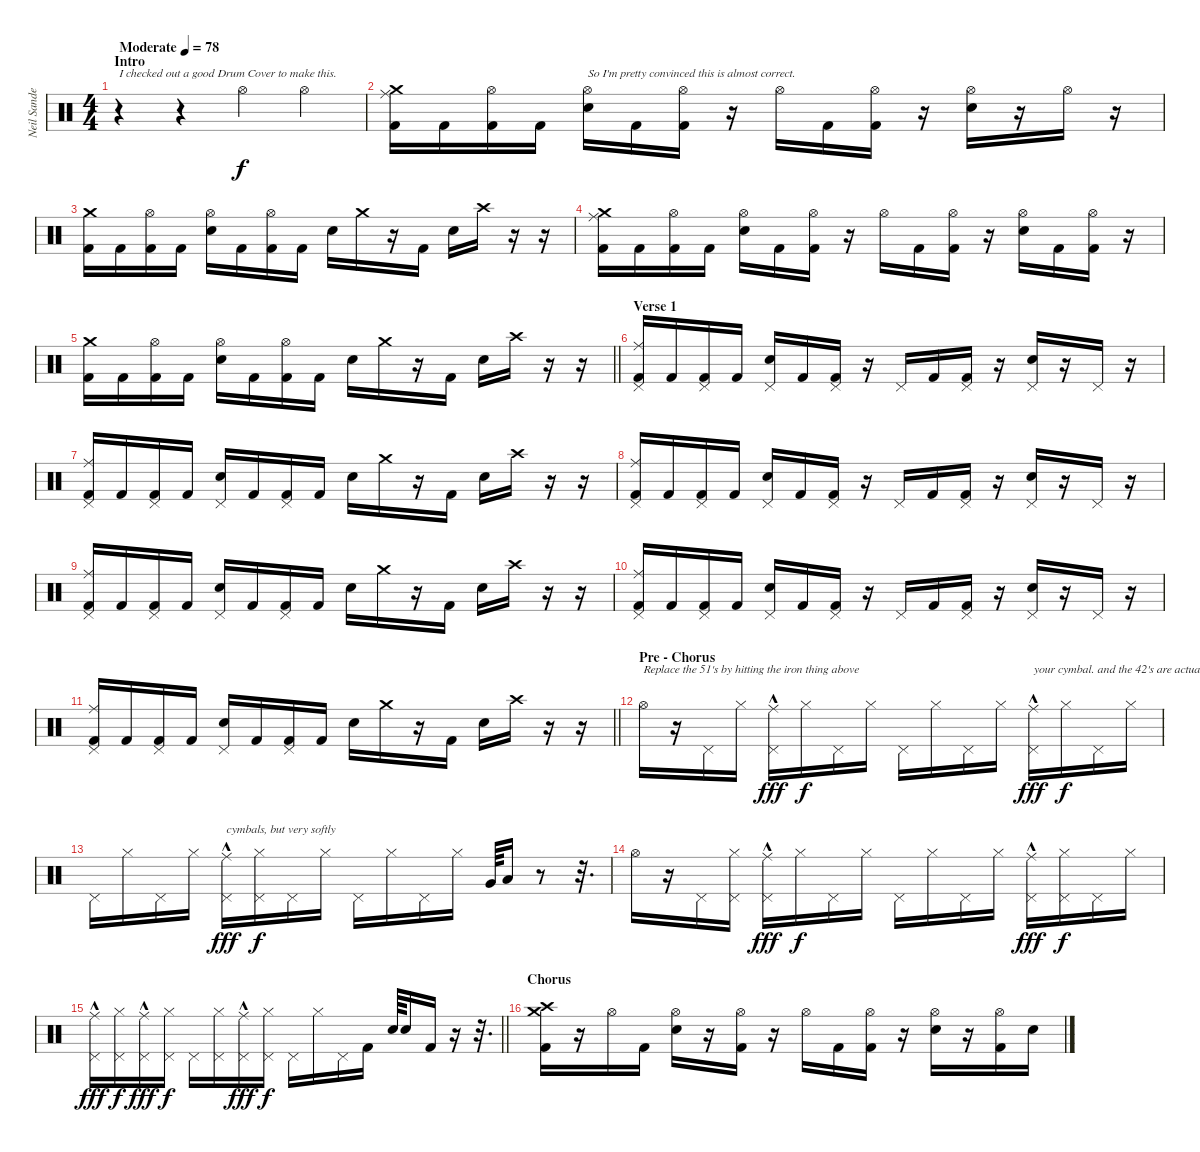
\track ("Neil Sanderson (Percussion)" "Neil Sande") {instrument percussion}
\staff {score}
\articulation defaults
\ts (4 4)
\section ("" "Intro")
\tempo (78 "Moderate")
\clef neutral
\ks c
r.4{txt "I checked out a good Drum Cover to make this." dy f} r.4 "Hi-Hat (open)".4 "Hi-Hat (open)".4 |
("Crash medium (hit)" "Ride (middle)" "Kick (hit) 2").16 "Kick (hit) 2".16 ("Hi-Hat (open)" "Kick (hit) 2").16 "Kick (hit) 2".16 ("Hi-Hat (open)" "Electric Snare (hit)").16{txt "So I'm pretty convinced this is almost correct."} "Kick (hit) 2".16 ("Hi-Hat (open)" "Kick (hit) 2").16 r.16 "Hi-Hat (open)".16 "Kick (hit) 2".16 ("Hi-Hat (open)" "Kick (hit) 2").16 r.16 ("Hi-Hat (open)" "Electric Snare (hit)").16 r.16 "Hi-Hat (open)".16 r.16 |
("Crash medium (hit)" "Kick (hit) 2").16 "Kick (hit) 2".16 ("Hi-Hat (open)" "Kick (hit) 2").16 "Kick (hit) 2".16 ("Hi-Hat (open)" "Electric Snare (hit)").16 "Kick (hit) 2".16 ("Hi-Hat (open)" "Kick (hit) 2").16 "Kick (hit) 2".16 "Electric Snare (hit)".16 "Crash medium (hit)".16 r.16 "Kick (hit) 2".16 "Electric Snare (hit)".16 "Crash high (hit)".16 r.16 r.16 |
("Crash medium (hit)" "Ride (middle)" "Kick (hit) 2").16 "Kick (hit) 2".16 ("Hi-Hat (open)" "Kick (hit) 2").16 "Kick (hit) 2".16 ("Hi-Hat (open)" "Electric Snare (hit)").16 "Kick (hit) 2".16 ("Hi-Hat (open)" "Kick (hit) 2").16 r.16 "Hi-Hat (open)".16 "Kick (hit) 2".16 ("Hi-Hat (open)" "Kick (hit) 2").16 r.16 ("Hi-Hat (open)" "Electric Snare (hit)").16 "Kick (hit) 2".16 ("Hi-Hat (open)" "Kick (hit) 2").16 r.16 |
\barLineRight lightlight
("Crash medium (hit)" "Kick (hit) 2").16 "Kick (hit) 2".16 ("Hi-Hat (open)" "Kick (hit) 2").16 "Kick (hit) 2".16 ("Hi-Hat (open)" "Electric Snare (hit)").16 "Kick (hit) 2".16 ("Hi-Hat (open)" "Kick (hit) 2").16 "Kick (hit) 2".16 "Electric Snare (hit)".16 "Crash medium (hit)".16 r.16 "Kick (hit) 2".16 "Electric Snare (hit)".16 "Crash high (hit)".16 r.16 r.16 |
\section ("" "Verse 1")
("Pedal Hi-Hat (hit)" "Ride (middle)" "Kick (hit) 2").16 "Kick (hit) 2".16 ("Pedal Hi-Hat (hit)" "Kick (hit) 2").16 "Kick (hit) 2".16 ("Pedal Hi-Hat (hit)" "Electric Snare (hit)").16 "Kick (hit) 2".16 ("Pedal Hi-Hat (hit)" "Kick (hit) 2").16 r.16 "Pedal Hi-Hat (hit)".16 "Kick (hit) 2".16 ("Pedal Hi-Hat (hit)" "Kick (hit) 2").16 r.16 ("Pedal Hi-Hat (hit)" "Electric Snare (hit)").16 r.16 "Pedal Hi-Hat (hit)".16 r.16 |
("Pedal Hi-Hat (hit)" "Ride (middle)" "Kick (hit) 2").16 "Kick (hit) 2".16 ("Pedal Hi-Hat (hit)" "Kick (hit) 2").16 "Kick (hit) 2".16 ("Pedal Hi-Hat (hit)" "Electric Snare (hit)").16 "Kick (hit) 2".16 ("Pedal Hi-Hat (hit)" "Kick (hit) 2").16 "Kick (hit) 2".16 "Electric Snare (hit)".16 "Crash medium (hit)".16 r.16 "Kick (hit) 2".16 "Electric Snare (hit)".16 "Crash high (hit)".16 r.16 r.16 |
("Pedal Hi-Hat (hit)" "Ride (middle)" "Kick (hit) 2").16 "Kick (hit) 2".16 ("Pedal Hi-Hat (hit)" "Kick (hit) 2").16 "Kick (hit) 2".16 ("Pedal Hi-Hat (hit)" "Electric Snare (hit)").16 "Kick (hit) 2".16 ("Pedal Hi-Hat (hit)" "Kick (hit) 2").16 r.16 "Pedal Hi-Hat (hit)".16 "Kick (hit) 2".16 ("Pedal Hi-Hat (hit)" "Kick (hit) 2").16 r.16 ("Pedal Hi-Hat (hit)" "Electric Snare (hit)").16 r.16 "Pedal Hi-Hat (hit)".16 r.16 |
("Pedal Hi-Hat (hit)" "Ride (middle)" "Kick (hit) 2").16 "Kick (hit) 2".16 ("Pedal Hi-Hat (hit)" "Kick (hit) 2").16 "Kick (hit) 2".16 ("Pedal Hi-Hat (hit)" "Electric Snare (hit)").16 "Kick (hit) 2".16 ("Pedal Hi-Hat (hit)" "Kick (hit) 2").16 "Kick (hit) 2".16 "Electric Snare (hit)".16 "Crash medium (hit)".16 r.16 "Kick (hit) 2".16 "Electric Snare (hit)".16 "Crash high (hit)".16 r.16 r.16 |
("Pedal Hi-Hat (hit)" "Ride (middle)" "Kick (hit) 2").16 "Kick (hit) 2".16 ("Pedal Hi-Hat (hit)" "Kick (hit) 2").16 "Kick (hit) 2".16 ("Pedal Hi-Hat (hit)" "Electric Snare (hit)").16 "Kick (hit) 2".16 ("Pedal Hi-Hat (hit)" "Kick (hit) 2").16 r.16 "Pedal Hi-Hat (hit)".16 "Kick (hit) 2".16 ("Pedal Hi-Hat (hit)" "Kick (hit) 2").16 r.16 ("Pedal Hi-Hat (hit)" "Electric Snare (hit)").16 r.16 "Pedal Hi-Hat (hit)".16 r.16 |
\barLineRight lightlight
("Pedal Hi-Hat (hit)" "Ride (middle)" "Kick (hit) 2").16 "Kick (hit) 2".16 ("Pedal Hi-Hat (hit)" "Kick (hit) 2").16 "Kick (hit) 2".16 ("Pedal Hi-Hat (hit)" "Electric Snare (hit)").16 "Kick (hit) 2".16 ("Pedal Hi-Hat (hit)" "Kick (hit) 2").16 "Kick (hit) 2".16 "Electric Snare (hit)".16 "Crash medium (hit)".16 r.16 "Kick (hit) 2".16 "Electric Snare (hit)".16 "Crash high (hit)".16 r.16 r.16 |
\section ("" "Pre - Chorus")
"Hi-Hat (open)".16{txt "Replace the 51's by hitting the iron thing above"} r.16 "Pedal Hi-Hat (hit)".16 "Hi-Hat (closed)".16 ("Pedal Hi-Hat (hit)" "Ride (middle)"{hac}).16{dy fff} "Hi-Hat (closed)".16{dy f} "Pedal Hi-Hat (hit)".16 "Hi-Hat (closed)".16 "Pedal Hi-Hat (hit)".16 "Hi-Hat (closed)".16 "Pedal Hi-Hat (hit)".16 "Hi-Hat (closed)".16 ("Pedal Hi-Hat (hit)" "Ride (middle)"{hac}).16{txt "your cymbal. and the 42's are actually regular" dy fff} "Hi-Hat (closed)".16{dy f} "Pedal Hi-Hat (hit)".16 "Hi-Hat (closed)".16 |
"Pedal Hi-Hat (hit)".16 "Hi-Hat (closed)".16 "Pedal Hi-Hat (hit)".16 "Hi-Hat (closed)".16 ("Pedal Hi-Hat (hit)" "Ride (middle)"{hac}).16{txt "cymbals, but very softly" dy fff} ("Pedal Hi-Hat (hit)" "Hi-Hat (closed)").16{dy f} "Pedal Hi-Hat (hit)".16 "Hi-Hat (closed)".16 "Pedal Hi-Hat (hit)".16 "Hi-Hat (closed)".16 "Pedal Hi-Hat (hit)".16 "Hi-Hat (closed)".16 "Very Low Tom (hit)".64 "Low Floor Tom (hit)".16 r.8 r.32{d} |
"Hi-Hat (open)".16 r.16 "Pedal Hi-Hat (hit)".16 ("Pedal Hi-Hat (hit)" "Hi-Hat (closed)").16 ("Pedal Hi-Hat (hit)" "Ride (middle)"{hac}).16{dy fff} "Hi-Hat (closed)".16{dy f} "Pedal Hi-Hat (hit)".16 "Hi-Hat (closed)".16 "Pedal Hi-Hat (hit)".16 "Hi-Hat (closed)".16 "Pedal Hi-Hat (hit)".16 "Hi-Hat (closed)".16 ("Pedal Hi-Hat (hit)" "Ride (middle)"{hac}).16{dy fff} ("Pedal Hi-Hat (hit)" "Hi-Hat (closed)").16{dy f} "Pedal Hi-Hat (hit)".16 "Hi-Hat (closed)".16 |
\barLineRight lightlight
("Pedal Hi-Hat (hit)" "Ride (middle)"{hac}).16{dy fff} ("Pedal Hi-Hat (hit)" "Hi-Hat (closed)").16{dy f} ("Pedal Hi-Hat (hit)" "Ride (middle)"{hac}).16{dy fff} ("Pedal Hi-Hat (hit)" "Hi-Hat (closed)").16{dy f} "Pedal Hi-Hat (hit)".16 ("Pedal Hi-Hat (hit)" "Hi-Hat (closed)").16 ("Pedal Hi-Hat (hit)" "Ride (middle)"{hac}).16{dy fff} ("Pedal Hi-Hat (hit)" "Hi-Hat (closed)").16{dy f} "Pedal Hi-Hat (hit)".16 "Hi-Hat (closed)".16 "Pedal Hi-Hat (hit)".16 "Kick (hit) 2".16 "Snare (hit) 2".64 "Electric Snare (hit)".16 "Kick (hit) 2".16 r.16 r.32{d} |
\section ("" "Chorus")
("Crash medium (hit)" "Crash high (hit)" "Kick (hit) 2").16 r.16 "Hi-Hat (open)".16 "Kick (hit) 2".16 ("Hi-Hat (open)" "Electric Snare (hit)").16 r.16 ("Hi-Hat (open)" "Kick (hit) 2").16 r.16 "Hi-Hat (open)".16 "Kick (hit) 2".16 ("Hi-Hat (open)" "Kick (hit) 2").16 r.16 ("Hi-Hat (open)" "Electric Snare (hit)").16 r.16 ("Hi-Hat (open)" "Kick (hit) 2").16 "Electric Snare (hit)".16
